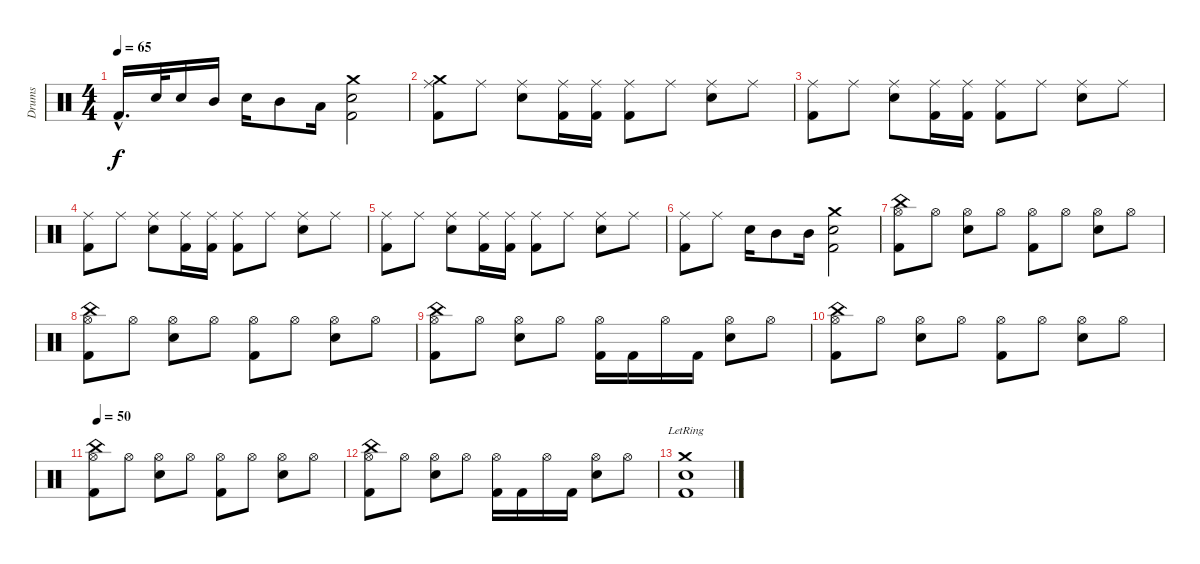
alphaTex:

\track ("Drums" "Drums") {instrument percussion}
\staff {score}
\articulation defaults
\ts (4 4)
\tempo 65
\clef neutral
\ks c "Kick (hit) 2"{hac}.16{d dy f} "Electric Snare (hit)".32 "Electric Snare (hit)".16 "Mid Tom (hit)".16 "Electric Snare (hit)".16 "Mid Tom (hit)".8 "Low Tom (hit)".16
("Crash medium (hit)" "Electric Snare (hit)" "Kick (hit) 2").2 |
("Crash medium (hit)" "Ride (middle)" "Kick (hit) 2").8 "Ride (middle)".8 ("Ride (middle)" "Electric Snare (hit)").8 ("Ride (middle)" "Kick (hit) 2").16 ("Ride (middle)" "Kick (hit) 2").16 ("Ride (middle)" "Kick (hit) 2").8 "Ride (middle)".8 ("Ride (middle)" "Electric Snare (hit)").8 "Ride (middle)".8 |
("Ride (middle)" "Kick (hit) 2").8 "Ride (middle)".8 ("Ride (middle)" "Electric Snare (hit)").8 ("Ride (middle)" "Kick (hit) 2").16 ("Ride (middle)" "Kick (hit) 2").16 ("Ride (middle)" "Kick (hit) 2").8 "Ride (middle)".8 ("Ride (middle)" "Electric Snare (hit)").8 "Ride (middle)".8 |
("Ride (middle)" "Kick (hit) 2").8 "Ride (middle)".8 ("Ride (middle)" "Electric Snare (hit)").8 ("Ride (middle)" "Kick (hit) 2").16 ("Ride (middle)" "Kick (hit) 2").16 ("Ride (middle)" "Kick (hit) 2").8 "Ride (middle)".8 ("Ride (middle)" "Electric Snare (hit)").8 "Ride (middle)".8 |
("Ride (middle)" "Kick (hit) 2").8 "Ride (middle)".8 ("Ride (middle)" "Electric Snare (hit)").8 ("Ride (middle)" "Kick (hit) 2").16 ("Ride (middle)" "Kick (hit) 2").16 ("Ride (middle)" "Kick (hit) 2").8 "Ride (middle)".8 ("Ride (middle)" "Electric Snare (hit)").8 "Ride (middle)".8 |
("Ride (middle)" "Kick (hit) 2").8 "Ride (middle)".8 "Electric Snare (hit)".16 "Mid Tom (hit)".8 "Mid Tom (hit)".16 ("Crash medium (hit)" "Electric Snare (hit)" "Kick (hit) 2").2 |
("Hi-Hat (open)" "China (hit)" "Kick (hit) 2").8 "Hi-Hat (open)".8 ("Hi-Hat (open)" "Snare (hit) 2").8 "Hi-Hat (open)".8 ("Hi-Hat (open)" "Kick (hit) 2").8 "Hi-Hat (open)".8 ("Hi-Hat (open)" "Snare (hit) 2").8 "Hi-Hat (open)".8 |
("Hi-Hat (open)" "China (hit)" "Kick (hit) 2").8 "Hi-Hat (open)".8 ("Hi-Hat (open)" "Snare (hit) 2").8 "Hi-Hat (open)".8 ("Hi-Hat (open)" "Kick (hit) 2").8 "Hi-Hat (open)".8 ("Hi-Hat (open)" "Snare (hit) 2").8 "Hi-Hat (open)".8 |
("Hi-Hat (open)" "China (hit)" "Kick (hit) 2").8 "Hi-Hat (open)".8 ("Hi-Hat (open)" "Snare (hit) 2").8 "Hi-Hat (open)".8 ("Hi-Hat (open)" "Kick (hit) 2").16 "Kick (hit) 2".16 "Hi-Hat (open)".16 "Kick (hit) 2".16 ("Hi-Hat (open)" "Snare (hit) 2").8 "Hi-Hat (open)".8 |
("Hi-Hat (open)" "China (hit)" "Kick (hit) 2").8 "Hi-Hat (open)".8 ("Hi-Hat (open)" "Snare (hit) 2").8 "Hi-Hat (open)".8 ("Hi-Hat (open)" "Kick (hit) 2").8 "Hi-Hat (open)".8 ("Hi-Hat (open)" "Snare (hit) 2").8 "Hi-Hat (open)".8 |
\tempo 50
("Hi-Hat (open)" "China (hit)" "Kick (hit) 2").8 "Hi-Hat (open)".8 ("Hi-Hat (open)" "Snare (hit) 2").8 "Hi-Hat (open)".8 ("Hi-Hat (open)" "Kick (hit) 2").8 "Hi-Hat (open)".8 ("Hi-Hat (open)" "Snare (hit) 2").8 "Hi-Hat (open)".8 |
("Hi-Hat (open)" "China (hit)" "Kick (hit) 2").8 "Hi-Hat (open)".8 ("Hi-Hat (open)" "Snare (hit) 2").8 "Hi-Hat (open)".8 ("Hi-Hat (open)" "Kick (hit) 2").16 "Kick (hit) 2".16 "Hi-Hat (open)".16 "Kick (hit) 2".16 ("Hi-Hat (open)" "Snare (hit) 2").8 "Hi-Hat (open)".8 |
("Crash medium (hit)"{lr} "Electric Snare (hit)" "Kick (hit) 2").1
